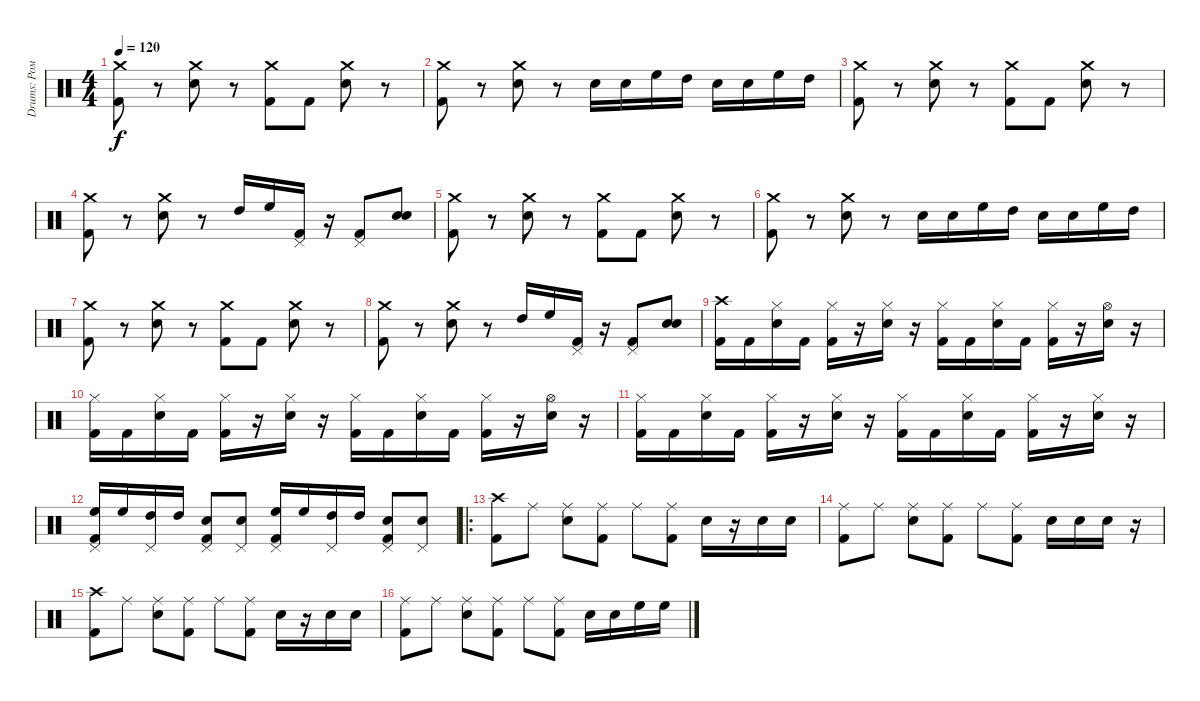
\track ("Drums: Рома" "Drums: Ром") {instrument percussion}
\staff {score}
\articulation defaults
\ts (4 4)
\tempo 120
\clef neutral
\ks c
("Kick (hit) 2" "Crash medium (hit)").8{dy f} r.8 ("Snare (hit) 2" "Crash medium (hit)").8 r.8 ("Kick (hit) 2" "Crash medium (hit)").8 "Kick (hit) 2".8 ("Snare (hit) 2" "Crash medium (hit)").8 r.8 |
("Kick (hit) 2" "Crash medium (hit)").8 r.8 ("Snare (hit) 2" "Crash medium (hit)").8 r.8 "Snare (hit) 2".16 "Snare (hit) 2".16 "High Floor Tom (hit)".16 "High Tom (hit)".16 "Snare (hit) 2".16 "Snare (hit) 2".16 "High Floor Tom (hit)".16 "High Tom (hit)".16 |
("Kick (hit) 2" "Crash medium (hit)").8 r.8 ("Snare (hit) 2" "Crash medium (hit)").8 r.8 ("Kick (hit) 2" "Crash medium (hit)").8 "Kick (hit) 2".8 ("Snare (hit) 2" "Crash medium (hit)").8 r.8 |
("Kick (hit) 2" "Crash medium (hit)").8 r.8 ("Snare (hit) 2" "Crash medium (hit)").8 r.8 "High Tom (hit)".16 "High Floor Tom (hit)".16 ("Kick (hit) 2" "Pedal Hi-Hat (hit)").16 r.16 ("Kick (hit) 2" "Pedal Hi-Hat (hit)").8 ("Snare (hit) 2" "Snare (hit) 2").8 |
("Kick (hit) 2" "Crash medium (hit)").8 r.8 ("Snare (hit) 2" "Crash medium (hit)").8 r.8 ("Kick (hit) 2" "Crash medium (hit)").8 "Kick (hit) 2".8 ("Snare (hit) 2" "Crash medium (hit)").8 r.8 |
("Kick (hit) 2" "Crash medium (hit)").8 r.8 ("Snare (hit) 2" "Crash medium (hit)").8 r.8 "Snare (hit) 2".16 "Snare (hit) 2".16 "High Floor Tom (hit)".16 "High Tom (hit)".16 "Snare (hit) 2".16 "Snare (hit) 2".16 "High Floor Tom (hit)".16 "High Tom (hit)".16 |
("Kick (hit) 2" "Crash medium (hit)").8 r.8 ("Snare (hit) 2" "Crash medium (hit)").8 r.8 ("Kick (hit) 2" "Crash medium (hit)").8 "Kick (hit) 2".8 ("Snare (hit) 2" "Crash medium (hit)").8 r.8 |
("Kick (hit) 2" "Crash medium (hit)").8 r.8 ("Snare (hit) 2" "Crash medium (hit)").8 r.8 "High Tom (hit)".16 "High Floor Tom (hit)".16 ("Kick (hit) 2" "Pedal Hi-Hat (hit)").16 r.16 ("Kick (hit) 2" "Pedal Hi-Hat (hit)").8 ("Snare (hit) 2" "Snare (hit) 2").8 |
("Kick (hit) 2" "Crash high (hit)").16 "Kick (hit) 2".16 ("Snare (hit) 2" "Hi-Hat (closed)").16 "Kick (hit) 2".16 ("Kick (hit) 2" "Hi-Hat (closed)").16 r.16 ("Snare (hit) 2" "Hi-Hat (closed)").16 r.16 ("Kick (hit) 2" "Hi-Hat (closed)").16 "Kick (hit) 2".16 ("Snare (hit) 2" "Hi-Hat (closed)").16 "Kick (hit) 2".16 ("Kick (hit) 2" "Hi-Hat (closed)").16 r.16 ("Snare (hit) 2" "Hi-Hat (open)").16 r.16 |
("Kick (hit) 2" "Hi-Hat (closed)").16 "Kick (hit) 2".16 ("Snare (hit) 2" "Hi-Hat (closed)").16 "Kick (hit) 2".16 ("Kick (hit) 2" "Hi-Hat (closed)").16 r.16 ("Snare (hit) 2" "Hi-Hat (closed)").16 r.16 ("Kick (hit) 2" "Hi-Hat (closed)").16 "Kick (hit) 2".16 ("Snare (hit) 2" "Hi-Hat (closed)").16 "Kick (hit) 2".16 ("Kick (hit) 2" "Hi-Hat (closed)").16 r.16 ("Snare (hit) 2" "Hi-Hat (open)").16 r.16 |
("Kick (hit) 2" "Hi-Hat (closed)").16 "Kick (hit) 2".16 ("Snare (hit) 2" "Hi-Hat (closed)").16 "Kick (hit) 2".16 ("Kick (hit) 2" "Hi-Hat (closed)").16 r.16 ("Snare (hit) 2" "Hi-Hat (closed)").16 r.16 ("Kick (hit) 2" "Hi-Hat (closed)").16 "Kick (hit) 2".16 ("Snare (hit) 2" "Hi-Hat (closed)").16 "Kick (hit) 2".16 ("Kick (hit) 2" "Hi-Hat (closed)").16 r.16 ("Snare (hit) 2" "Hi-Hat (closed)").16 r.16 |
("High Floor Tom (hit)" "Pedal Hi-Hat (hit)" "Kick (hit) 2").16 "High Floor Tom (hit)".16 ("High Tom (hit)" "Pedal Hi-Hat (hit)").16 "High Tom (hit)".16 ("Snare (hit) 2" "Pedal Hi-Hat (hit)" "Kick (hit) 2").8 ("Snare (hit) 2" "Pedal Hi-Hat (hit)").8 ("High Floor Tom (hit)" "Pedal Hi-Hat (hit)" "Kick (hit) 2").16 "High Floor Tom (hit)".16 ("High Tom (hit)" "Pedal Hi-Hat (hit)").16 "High Tom (hit)".16 ("Snare (hit) 2" "Pedal Hi-Hat (hit)" "Kick (hit) 2").8 ("Snare (hit) 2" "Pedal Hi-Hat (hit)").8 |
\ro
("Crash high (hit)" "Kick (hit) 2").8 "Ride (middle)".8 ("Ride (middle)" "Snare (hit) 2").8 ("Ride (middle)" "Kick (hit) 2").8 "Ride (middle)".8 ("Ride (middle)" "Kick (hit) 2").8 "Snare (hit) 2".16 r.16 "Snare (hit) 2".16 "Snare (hit) 2".16 |
("Ride (middle)" "Kick (hit) 2").8 "Ride (middle)".8 ("Ride (middle)" "Snare (hit) 2").8 ("Ride (middle)" "Kick (hit) 2").8 "Ride (middle)".8 ("Ride (middle)" "Kick (hit) 2").8 "Snare (hit) 2".16 "Snare (hit) 2".16 "Snare (hit) 2".16 r.16 |
("Crash high (hit)" "Kick (hit) 2").8 "Ride (middle)".8 ("Ride (middle)" "Snare (hit) 2").8 ("Ride (middle)" "Kick (hit) 2").8 "Ride (middle)".8 ("Ride (middle)" "Kick (hit) 2").8 "Snare (hit) 2".16 r.16 "Snare (hit) 2".16 "Snare (hit) 2".16 |
("Ride (middle)" "Kick (hit) 2").8 "Ride (middle)".8 ("Ride (middle)" "Snare (hit) 2").8 ("Ride (middle)" "Kick (hit) 2").8 "Ride (middle)".8 ("Ride (middle)" "Kick (hit) 2").8 "Snare (hit) 2".16 "Snare (hit) 2".16 "High Floor Tom (hit)".16 "High Floor Tom (hit)".16
